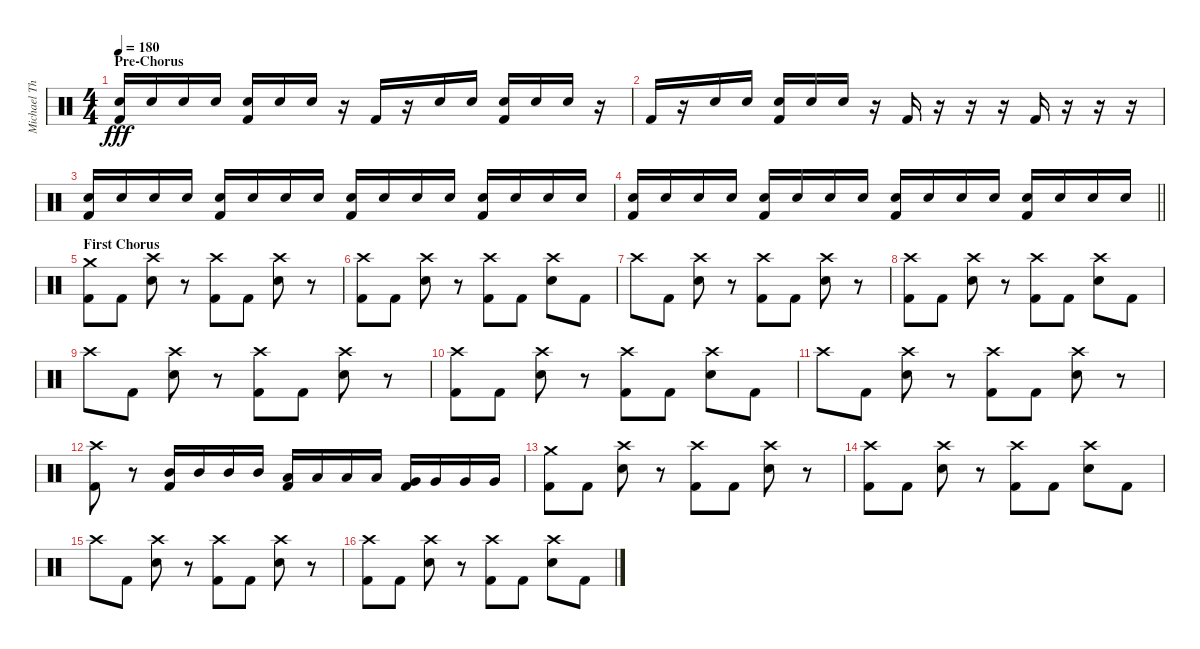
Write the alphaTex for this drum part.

\track ("Michael Thomas" "Michael Th") {instrument percussion}
\staff {score}
\articulation defaults
\ts (4 4)
\section ("" "Pre-Chorus")
\tempo 180
\clef neutral
\ks c
("Electric Snare (hit)" "Kick (hit) 2").16{dy fff} "Electric Snare (hit)".16 "Electric Snare (hit)".16 "Electric Snare (hit)".16 ("Electric Snare (hit)" "Kick (hit) 2").16 "Electric Snare (hit)".16 "Electric Snare (hit)".16 r.16 "Kick (hit) 2".16 r.16 "Electric Snare (hit)".16 "Electric Snare (hit)".16 ("Electric Snare (hit)" "Kick (hit) 2").16 "Electric Snare (hit)".16 "Electric Snare (hit)".16 r.16 |
"Kick (hit) 2".16 r.16 "Electric Snare (hit)".16 "Electric Snare (hit)".16 ("Electric Snare (hit)" "Kick (hit) 2").16 "Electric Snare (hit)".16 "Electric Snare (hit)".16 r.16 "Kick (hit) 2".16 r.16 r.16 r.16 "Kick (hit) 2".16 r.16 r.16 r.16 |
("Electric Snare (hit)" "Kick (hit) 2").16 "Electric Snare (hit)".16 "Electric Snare (hit)".16 "Electric Snare (hit)".16 ("Electric Snare (hit)" "Kick (hit) 2").16 "Electric Snare (hit)".16 "Electric Snare (hit)".16 "Electric Snare (hit)".16 ("Electric Snare (hit)" "Kick (hit) 2").16 "Electric Snare (hit)".16 "Electric Snare (hit)".16 "Electric Snare (hit)".16 ("Electric Snare (hit)" "Kick (hit) 2").16 "Electric Snare (hit)".16 "Electric Snare (hit)".16 "Electric Snare (hit)".16 |
\barLineRight lightlight
("Electric Snare (hit)" "Kick (hit) 2").16 "Electric Snare (hit)".16 "Electric Snare (hit)".16 "Electric Snare (hit)".16 ("Electric Snare (hit)" "Kick (hit) 2").16 "Electric Snare (hit)".16 "Electric Snare (hit)".16 "Electric Snare (hit)".16 ("Electric Snare (hit)" "Kick (hit) 2").16 "Electric Snare (hit)".16 "Electric Snare (hit)".16 "Electric Snare (hit)".16 ("Electric Snare (hit)" "Kick (hit) 2").16 "Electric Snare (hit)".16 "Electric Snare (hit)".16 "Electric Snare (hit)".16 |
\section ("" "First Chorus")
("Crash medium (hit)" "Kick (hit) 2").8 "Kick (hit) 2".8 ("Crash high (hit)" "Electric Snare (hit)").8 r.8 ("Crash high (hit)" "Kick (hit) 2").8 "Kick (hit) 2".8 ("Crash high (hit)" "Electric Snare (hit)").8 r.8 |
("Crash high (hit)" "Kick (hit) 2").8 "Kick (hit) 2".8 ("Crash high (hit)" "Electric Snare (hit)").8 r.8 ("Crash high (hit)" "Kick (hit) 2").8 "Kick (hit) 2".8 ("Crash high (hit)" "Electric Snare (hit)").8 "Kick (hit) 2".8 |
"Crash high (hit)".8 "Kick (hit) 2".8 ("Crash high (hit)" "Electric Snare (hit)").8 r.8 ("Crash high (hit)" "Kick (hit) 2").8 "Kick (hit) 2".8 ("Crash high (hit)" "Electric Snare (hit)").8 r.8 |
("Crash high (hit)" "Kick (hit) 2").8 "Kick (hit) 2".8 ("Crash high (hit)" "Electric Snare (hit)").8 r.8 ("Crash high (hit)" "Kick (hit) 2").8 "Kick (hit) 2".8 ("Crash high (hit)" "Electric Snare (hit)").8 "Kick (hit) 2".8 |
"Crash high (hit)".8 "Kick (hit) 2".8 ("Crash high (hit)" "Electric Snare (hit)").8 r.8 ("Crash high (hit)" "Kick (hit) 2").8 "Kick (hit) 2".8 ("Crash high (hit)" "Electric Snare (hit)").8 r.8 |
("Crash high (hit)" "Kick (hit) 2").8 "Kick (hit) 2".8 ("Crash high (hit)" "Electric Snare (hit)").8 r.8 ("Crash high (hit)" "Kick (hit) 2").8 "Kick (hit) 2".8 ("Crash high (hit)" "Electric Snare (hit)").8 "Kick (hit) 2".8 |
"Crash high (hit)".8 "Kick (hit) 2".8 ("Crash high (hit)" "Electric Snare (hit)").8 r.8 ("Crash high (hit)" "Kick (hit) 2").8 "Kick (hit) 2".8 ("Crash high (hit)" "Electric Snare (hit)").8 r.8 |
("Crash high (hit)" "Kick (hit) 2").8 r.8 ("Mid Tom (hit)" "Kick (hit) 2").16 "Mid Tom (hit)".16 "Mid Tom (hit)".16 "Mid Tom (hit)".16 ("Low Tom (hit)" "Kick (hit) 2").16 "Low Tom (hit)".16 "Low Tom (hit)".16 "Low Tom (hit)".16 ("Very Low Tom (hit)" "Kick (hit) 2").16 "Very Low Tom (hit)".16 "Very Low Tom (hit)".16 "Very Low Tom (hit)".16 |
("Crash medium (hit)" "Kick (hit) 2").8 "Kick (hit) 2".8 ("Crash high (hit)" "Electric Snare (hit)").8 r.8 ("Crash high (hit)" "Kick (hit) 2").8 "Kick (hit) 2".8 ("Crash high (hit)" "Electric Snare (hit)").8 r.8 |
("Crash high (hit)" "Kick (hit) 2").8 "Kick (hit) 2".8 ("Crash high (hit)" "Electric Snare (hit)").8 r.8 ("Crash high (hit)" "Kick (hit) 2").8 "Kick (hit) 2".8 ("Crash high (hit)" "Electric Snare (hit)").8 "Kick (hit) 2".8 |
"Crash high (hit)".8 "Kick (hit) 2".8 ("Crash high (hit)" "Electric Snare (hit)").8 r.8 ("Crash high (hit)" "Kick (hit) 2").8 "Kick (hit) 2".8 ("Crash high (hit)" "Electric Snare (hit)").8 r.8 |
("Crash high (hit)" "Kick (hit) 2").8 "Kick (hit) 2".8 ("Crash high (hit)" "Electric Snare (hit)").8 r.8 ("Crash high (hit)" "Kick (hit) 2").8 "Kick (hit) 2".8 ("Crash high (hit)" "Electric Snare (hit)").8 "Kick (hit) 2".8
